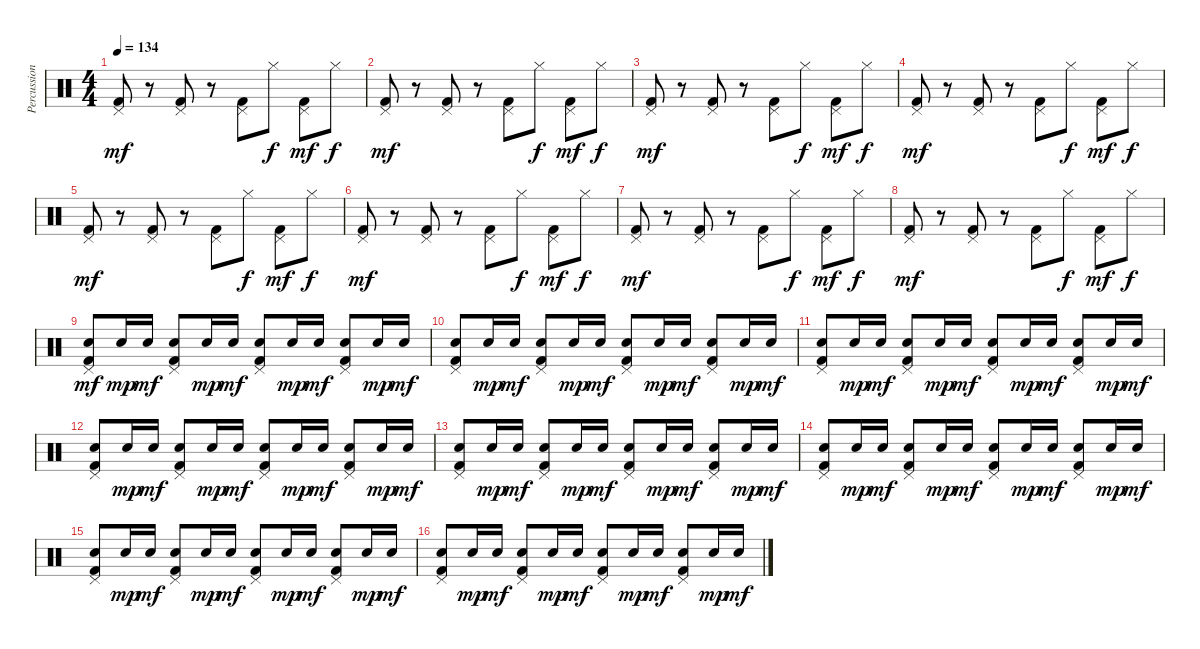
\track ("Percussion" "Percussion") {instrument percussion}
\staff {score}
\articulation defaults
\ts (4 4)
\tempo 134
\clef neutral
\ks c
("Kick (hit) 2" "Pedal Hi-Hat (hit)").8{dy mf} r.8 ("Kick (hit) 2" "Pedal Hi-Hat (hit)").8 r.8 ("Kick (hit) 2" "Pedal Hi-Hat (hit)").8 "Hi-Hat (closed)".8{dy f} ("Kick (hit) 2" "Pedal Hi-Hat (hit)").8{dy mf} "Hi-Hat (closed)".8{dy f} |
("Kick (hit) 2" "Pedal Hi-Hat (hit)").8{dy mf} r.8 ("Kick (hit) 2" "Pedal Hi-Hat (hit)").8 r.8 ("Kick (hit) 2" "Pedal Hi-Hat (hit)").8 "Hi-Hat (closed)".8{dy f} ("Kick (hit) 2" "Pedal Hi-Hat (hit)").8{dy mf} "Hi-Hat (closed)".8{dy f} |
("Kick (hit) 2" "Pedal Hi-Hat (hit)").8{dy mf} r.8 ("Kick (hit) 2" "Pedal Hi-Hat (hit)").8 r.8 ("Kick (hit) 2" "Pedal Hi-Hat (hit)").8 "Hi-Hat (closed)".8{dy f} ("Kick (hit) 2" "Pedal Hi-Hat (hit)").8{dy mf} "Hi-Hat (closed)".8{dy f} |
("Kick (hit) 2" "Pedal Hi-Hat (hit)").8{dy mf} r.8 ("Kick (hit) 2" "Pedal Hi-Hat (hit)").8 r.8 ("Kick (hit) 2" "Pedal Hi-Hat (hit)").8 "Hi-Hat (closed)".8{dy f} ("Kick (hit) 2" "Pedal Hi-Hat (hit)").8{dy mf} "Hi-Hat (closed)".8{dy f} |
("Kick (hit) 2" "Pedal Hi-Hat (hit)").8{dy mf} r.8 ("Kick (hit) 2" "Pedal Hi-Hat (hit)").8 r.8 ("Kick (hit) 2" "Pedal Hi-Hat (hit)").8 "Hi-Hat (closed)".8{dy f} ("Kick (hit) 2" "Pedal Hi-Hat (hit)").8{dy mf} "Hi-Hat (closed)".8{dy f} |
("Kick (hit) 2" "Pedal Hi-Hat (hit)").8{dy mf} r.8 ("Kick (hit) 2" "Pedal Hi-Hat (hit)").8 r.8 ("Kick (hit) 2" "Pedal Hi-Hat (hit)").8 "Hi-Hat (closed)".8{dy f} ("Kick (hit) 2" "Pedal Hi-Hat (hit)").8{dy mf} "Hi-Hat (closed)".8{dy f} |
("Kick (hit) 2" "Pedal Hi-Hat (hit)").8{dy mf} r.8 ("Kick (hit) 2" "Pedal Hi-Hat (hit)").8 r.8 ("Kick (hit) 2" "Pedal Hi-Hat (hit)").8 "Hi-Hat (closed)".8{dy f} ("Kick (hit) 2" "Pedal Hi-Hat (hit)").8{dy mf} "Hi-Hat (closed)".8{dy f} |
("Kick (hit) 2" "Pedal Hi-Hat (hit)").8{dy mf} r.8 ("Kick (hit) 2" "Pedal Hi-Hat (hit)").8 r.8 ("Kick (hit) 2" "Pedal Hi-Hat (hit)").8 "Hi-Hat (closed)".8{dy f} ("Kick (hit) 2" "Pedal Hi-Hat (hit)").8{dy mf} "Hi-Hat (closed)".8{dy f} |
("Kick (hit) 2" "Pedal Hi-Hat (hit)" "Electric Snare (hit)").8{dy mf} "Electric Snare (hit)".16{dy mp} "Electric Snare (hit)".16{dy mf} ("Kick (hit) 2" "Pedal Hi-Hat (hit)" "Electric Snare (hit)").8 "Electric Snare (hit)".16{dy mp} "Electric Snare (hit)".16{dy mf} ("Kick (hit) 2" "Pedal Hi-Hat (hit)" "Electric Snare (hit)").8 "Electric Snare (hit)".16{dy mp} "Electric Snare (hit)".16{dy mf} ("Kick (hit) 2" "Pedal Hi-Hat (hit)" "Electric Snare (hit)").8 "Electric Snare (hit)".16{dy mp} "Electric Snare (hit)".16{dy mf} |
("Kick (hit) 2" "Pedal Hi-Hat (hit)" "Electric Snare (hit)").8 "Electric Snare (hit)".16{dy mp} "Electric Snare (hit)".16{dy mf} ("Kick (hit) 2" "Pedal Hi-Hat (hit)" "Electric Snare (hit)").8 "Electric Snare (hit)".16{dy mp} "Electric Snare (hit)".16{dy mf} ("Kick (hit) 2" "Pedal Hi-Hat (hit)" "Electric Snare (hit)").8 "Electric Snare (hit)".16{dy mp} "Electric Snare (hit)".16{dy mf} ("Kick (hit) 2" "Pedal Hi-Hat (hit)" "Electric Snare (hit)").8 "Electric Snare (hit)".16{dy mp} "Electric Snare (hit)".16{dy mf} |
("Kick (hit) 2" "Pedal Hi-Hat (hit)" "Electric Snare (hit)").8 "Electric Snare (hit)".16{dy mp} "Electric Snare (hit)".16{dy mf} ("Kick (hit) 2" "Pedal Hi-Hat (hit)" "Electric Snare (hit)").8 "Electric Snare (hit)".16{dy mp} "Electric Snare (hit)".16{dy mf} ("Kick (hit) 2" "Pedal Hi-Hat (hit)" "Electric Snare (hit)").8 "Electric Snare (hit)".16{dy mp} "Electric Snare (hit)".16{dy mf} ("Kick (hit) 2" "Pedal Hi-Hat (hit)" "Electric Snare (hit)").8 "Electric Snare (hit)".16{dy mp} "Electric Snare (hit)".16{dy mf} |
("Kick (hit) 2" "Pedal Hi-Hat (hit)" "Electric Snare (hit)").8 "Electric Snare (hit)".16{dy mp} "Electric Snare (hit)".16{dy mf} ("Kick (hit) 2" "Pedal Hi-Hat (hit)" "Electric Snare (hit)").8 "Electric Snare (hit)".16{dy mp} "Electric Snare (hit)".16{dy mf} ("Kick (hit) 2" "Pedal Hi-Hat (hit)" "Electric Snare (hit)").8 "Electric Snare (hit)".16{dy mp} "Electric Snare (hit)".16{dy mf} ("Kick (hit) 2" "Pedal Hi-Hat (hit)" "Electric Snare (hit)").8 "Electric Snare (hit)".16{dy mp} "Electric Snare (hit)".16{dy mf} |
("Kick (hit) 2" "Pedal Hi-Hat (hit)" "Electric Snare (hit)").8 "Electric Snare (hit)".16{dy mp} "Electric Snare (hit)".16{dy mf} ("Kick (hit) 2" "Pedal Hi-Hat (hit)" "Electric Snare (hit)").8 "Electric Snare (hit)".16{dy mp} "Electric Snare (hit)".16{dy mf} ("Kick (hit) 2" "Pedal Hi-Hat (hit)" "Electric Snare (hit)").8 "Electric Snare (hit)".16{dy mp} "Electric Snare (hit)".16{dy mf} ("Kick (hit) 2" "Pedal Hi-Hat (hit)" "Electric Snare (hit)").8 "Electric Snare (hit)".16{dy mp} "Electric Snare (hit)".16{dy mf} |
("Kick (hit) 2" "Pedal Hi-Hat (hit)" "Electric Snare (hit)").8 "Electric Snare (hit)".16{dy mp} "Electric Snare (hit)".16{dy mf} ("Kick (hit) 2" "Pedal Hi-Hat (hit)" "Electric Snare (hit)").8 "Electric Snare (hit)".16{dy mp} "Electric Snare (hit)".16{dy mf} ("Kick (hit) 2" "Pedal Hi-Hat (hit)" "Electric Snare (hit)").8 "Electric Snare (hit)".16{dy mp} "Electric Snare (hit)".16{dy mf} ("Kick (hit) 2" "Pedal Hi-Hat (hit)" "Electric Snare (hit)").8 "Electric Snare (hit)".16{dy mp} "Electric Snare (hit)".16{dy mf} |
("Kick (hit) 2" "Pedal Hi-Hat (hit)" "Electric Snare (hit)").8 "Electric Snare (hit)".16{dy mp} "Electric Snare (hit)".16{dy mf} ("Kick (hit) 2" "Pedal Hi-Hat (hit)" "Electric Snare (hit)").8 "Electric Snare (hit)".16{dy mp} "Electric Snare (hit)".16{dy mf} ("Kick (hit) 2" "Pedal Hi-Hat (hit)" "Electric Snare (hit)").8 "Electric Snare (hit)".16{dy mp} "Electric Snare (hit)".16{dy mf} ("Kick (hit) 2" "Pedal Hi-Hat (hit)" "Electric Snare (hit)").8 "Electric Snare (hit)".16{dy mp} "Electric Snare (hit)".16{dy mf} |
("Kick (hit) 2" "Pedal Hi-Hat (hit)" "Electric Snare (hit)").8 "Electric Snare (hit)".16{dy mp} "Electric Snare (hit)".16{dy mf} ("Kick (hit) 2" "Pedal Hi-Hat (hit)" "Electric Snare (hit)").8 "Electric Snare (hit)".16{dy mp} "Electric Snare (hit)".16{dy mf} ("Kick (hit) 2" "Pedal Hi-Hat (hit)" "Electric Snare (hit)").8 "Electric Snare (hit)".16{dy mp} "Electric Snare (hit)".16{dy mf} ("Kick (hit) 2" "Pedal Hi-Hat (hit)" "Electric Snare (hit)").8 "Electric Snare (hit)".16{dy mp} "Electric Snare (hit)".16{dy mf}
